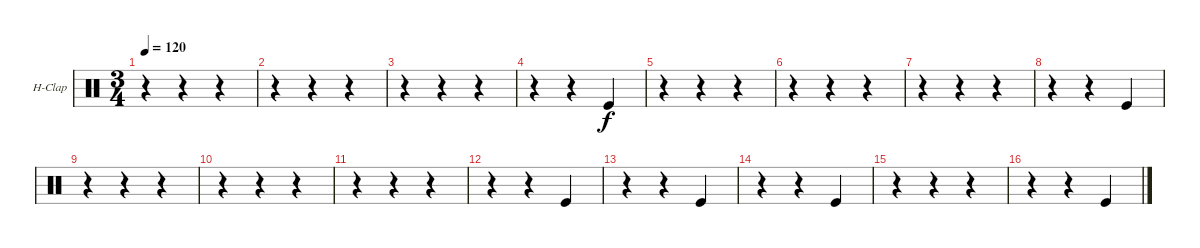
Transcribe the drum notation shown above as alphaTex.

\bracketExtendMode groupsimilarinstruments
\firstSystemTrackNameOrientation horizontal
\otherSystemsTrackNameOrientation horizontal
\track ("Hand Clap" "H-Clap") {instrument percussion}
\staff {score}
\articulation defaults
\ts (3 4)
\tempo 120
\clef neutral
\ks c
r.4{dy f} r.4 r.4 |
r.4 r.4 r.4 |
r.4 r.4 r.4 |
r.4 r.4 "Kick (hit)".4 |
r.4 r.4 r.4 |
r.4 r.4 r.4 |
r.4 r.4 r.4 |
r.4 r.4 "Kick (hit)".4 |
r.4 r.4 r.4 |
r.4 r.4 r.4 |
r.4 r.4 r.4 |
r.4 r.4 "Kick (hit)".4 |
r.4 r.4 "Kick (hit)".4 |
r.4 r.4 "Kick (hit)".4 |
r.4 r.4 r.4 |
r.4 r.4 "Kick (hit)".4
